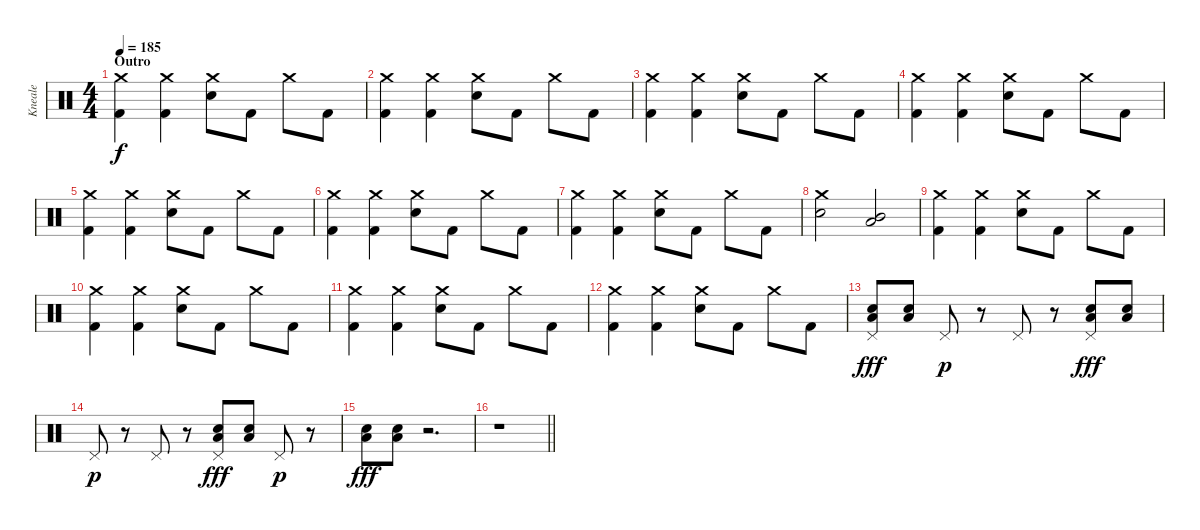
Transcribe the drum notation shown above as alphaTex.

\track ("Kneale" "Kneale") {instrument percussion}
\staff {score}
\articulation defaults
\ts (4 4)
\section ("" "Outro")
\tempo 185
\clef neutral
\ks c
("Crash medium (hit)" "Kick (hit) 2").4{dy f} ("Crash medium (hit)" "Kick (hit) 2").4 ("Crash medium (hit)" "Electric Snare (hit)").8 "Kick (hit) 2".8 "Crash medium (hit)".8 "Kick (hit) 2".8 |
("Crash medium (hit)" "Kick (hit) 2").4 ("Crash medium (hit)" "Kick (hit) 2").4 ("Crash medium (hit)" "Electric Snare (hit)").8 "Kick (hit) 2".8 "Crash medium (hit)".8 "Kick (hit) 2".8 |
("Crash medium (hit)" "Kick (hit) 2").4 ("Crash medium (hit)" "Kick (hit) 2").4 ("Crash medium (hit)" "Electric Snare (hit)").8 "Kick (hit) 2".8 "Crash medium (hit)".8 "Kick (hit) 2".8 |
("Crash medium (hit)" "Kick (hit) 2").4 ("Crash medium (hit)" "Kick (hit) 2").4 ("Crash medium (hit)" "Electric Snare (hit)").8 "Kick (hit) 2".8 "Crash medium (hit)".8 "Kick (hit) 2".8 |
("Crash medium (hit)" "Kick (hit) 2").4 ("Crash medium (hit)" "Kick (hit) 2").4 ("Crash medium (hit)" "Electric Snare (hit)").8 "Kick (hit) 2".8 "Crash medium (hit)".8 "Kick (hit) 2".8 |
("Crash medium (hit)" "Kick (hit) 2").4 ("Crash medium (hit)" "Kick (hit) 2").4 ("Crash medium (hit)" "Electric Snare (hit)").8 "Kick (hit) 2".8 "Crash medium (hit)".8 "Kick (hit) 2".8 |
("Crash medium (hit)" "Kick (hit) 2").4 ("Crash medium (hit)" "Kick (hit) 2").4 ("Crash medium (hit)" "Electric Snare (hit)").8 "Kick (hit) 2".8 "Crash medium (hit)".8 "Kick (hit) 2".8 |
("Crash medium (hit)" "Electric Snare (hit)").2 ("Low Floor Tom (hit)" "Mid Tom (hit)").2 |
("Crash medium (hit)" "Kick (hit) 2").4 ("Crash medium (hit)" "Kick (hit) 2").4 ("Crash medium (hit)" "Electric Snare (hit)").8 "Kick (hit) 2".8 "Crash medium (hit)".8 "Kick (hit) 2".8 |
("Crash medium (hit)" "Kick (hit) 2").4 ("Crash medium (hit)" "Kick (hit) 2").4 ("Crash medium (hit)" "Electric Snare (hit)").8 "Kick (hit) 2".8 "Crash medium (hit)".8 "Kick (hit) 2".8 |
("Crash medium (hit)" "Kick (hit) 2").4 ("Crash medium (hit)" "Kick (hit) 2").4 ("Crash medium (hit)" "Electric Snare (hit)").8 "Kick (hit) 2".8 "Crash medium (hit)".8 "Kick (hit) 2".8 |
("Crash medium (hit)" "Kick (hit) 2").4 ("Crash medium (hit)" "Kick (hit) 2").4 ("Crash medium (hit)" "Electric Snare (hit)").8 "Kick (hit) 2".8 "Crash medium (hit)".8 "Kick (hit) 2".8 |
("Pedal Hi-Hat (hit)" "Low Floor Tom (hit)" "Electric Snare (hit)").8{dy fff} ("Low Floor Tom (hit)" "Electric Snare (hit)").8 "Pedal Hi-Hat (hit)".8{dy p} r.8 "Pedal Hi-Hat (hit)".8 r.8 ("Pedal Hi-Hat (hit)" "Low Floor Tom (hit)" "Electric Snare (hit)").8{dy fff} ("Low Floor Tom (hit)" "Electric Snare (hit)").8 |
"Pedal Hi-Hat (hit)".8{dy p} r.8 "Pedal Hi-Hat (hit)".8 r.8 ("Pedal Hi-Hat (hit)" "Low Floor Tom (hit)" "Electric Snare (hit)").8{dy fff} ("Low Floor Tom (hit)" "Electric Snare (hit)").8 "Pedal Hi-Hat (hit)".8{dy p} r.8 |
("Low Floor Tom (hit)" "Electric Snare (hit)").8{dy fff} ("Low Floor Tom (hit)" "Electric Snare (hit)").8 r.2{d} |
\barLineRight lightlight
r.1
